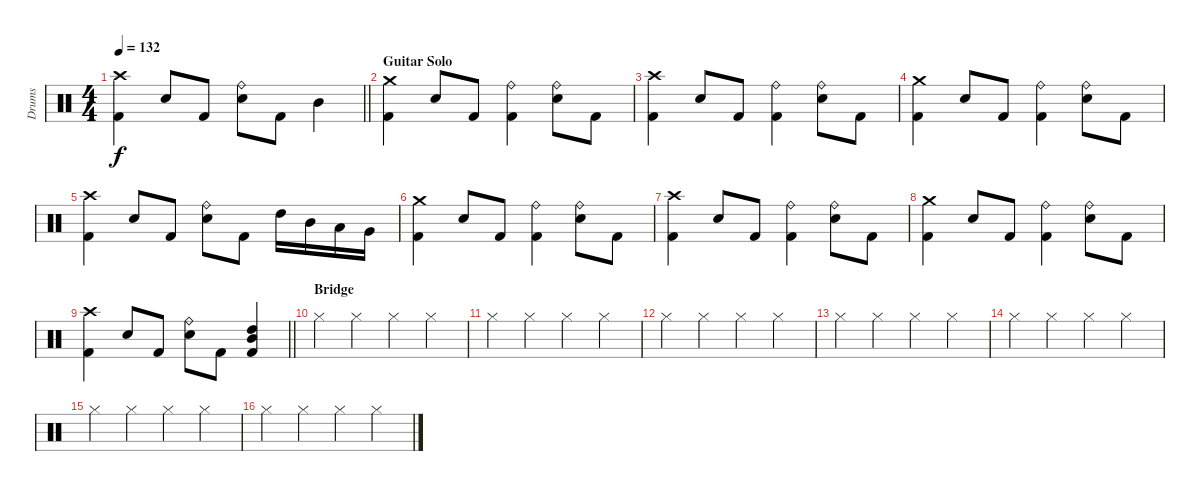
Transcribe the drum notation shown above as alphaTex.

\track ("Drums" "Drums") {instrument percussion}
\staff {score}
\articulation defaults
\ts (4 4)
\tempo 132
\clef neutral
\barLineRight lightlight
\ks c
("Kick (hit) 2" "Crash high (hit)").4{dy f} "Electric Snare (hit)".8 "Kick (hit) 2".8 ("Electric Snare (hit)" "Ride (bell)").8 "Kick (hit) 2".8 "Mid Tom (hit)".4 |
\section ("" "Guitar Solo")
("Kick (hit) 2" "Crash medium (hit)").4 "Electric Snare (hit)".8 "Kick (hit) 2".8 ("Kick (hit) 2" "Ride (bell)").4 ("Electric Snare (hit)" "Ride (bell)").8 "Kick (hit) 2".8 |
("Kick (hit) 2" "Crash high (hit)").4 "Electric Snare (hit)".8 "Kick (hit) 2".8 ("Kick (hit) 2" "Ride (bell)").4 ("Electric Snare (hit)" "Ride (bell)").8 "Kick (hit) 2".8 |
("Kick (hit) 2" "Crash medium (hit)").4 "Electric Snare (hit)".8 "Kick (hit) 2".8 ("Kick (hit) 2" "Ride (bell)").4 ("Electric Snare (hit)" "Ride (bell)").8 "Kick (hit) 2".8 |
("Kick (hit) 2" "Crash high (hit)").4 "Electric Snare (hit)".8 "Kick (hit) 2".8 ("Electric Snare (hit)" "Ride (bell)").8 "Kick (hit) 2".8 "High Tom (hit)".16 "Mid Tom (hit)".16 "Low Tom (hit)".16 "Very Low Tom (hit)".16 |
("Kick (hit) 2" "Crash medium (hit)").4 "Electric Snare (hit)".8 "Kick (hit) 2".8 ("Kick (hit) 2" "Ride (bell)").4 ("Electric Snare (hit)" "Ride (bell)").8 "Kick (hit) 2".8 |
("Kick (hit) 2" "Crash high (hit)").4 "Electric Snare (hit)".8 "Kick (hit) 2".8 ("Kick (hit) 2" "Ride (bell)").4 ("Electric Snare (hit)" "Ride (bell)").8 "Kick (hit) 2".8 |
("Kick (hit) 2" "Crash medium (hit)").4 "Electric Snare (hit)".8 "Kick (hit) 2".8 ("Kick (hit) 2" "Ride (bell)").4 ("Electric Snare (hit)" "Ride (bell)").8 "Kick (hit) 2".8 |
\barLineRight lightlight
("Kick (hit) 2" "Crash high (hit)").4 "Electric Snare (hit)".8 "Kick (hit) 2".8 ("Electric Snare (hit)" "Ride (bell)").8 "Kick (hit) 2".8 ("Kick (hit) 2" "Mid Tom (hit)" "High Tom (hit)").4 |
\section ("" "Bridge")
"Hi-Hat (closed)".4 "Hi-Hat (closed)".4 "Hi-Hat (closed)".4 "Hi-Hat (closed)".4 |
"Hi-Hat (closed)".4 "Hi-Hat (closed)".4 "Hi-Hat (closed)".4 "Hi-Hat (closed)".4 |
"Hi-Hat (closed)".4 "Hi-Hat (closed)".4 "Hi-Hat (closed)".4 "Hi-Hat (closed)".4 |
"Hi-Hat (closed)".4 "Hi-Hat (closed)".4 "Hi-Hat (closed)".4 "Hi-Hat (closed)".4 |
"Hi-Hat (closed)".4 "Hi-Hat (closed)".4 "Hi-Hat (closed)".4 "Hi-Hat (closed)".4 |
"Hi-Hat (closed)".4 "Hi-Hat (closed)".4 "Hi-Hat (closed)".4 "Hi-Hat (closed)".4 |
"Hi-Hat (closed)".4 "Hi-Hat (closed)".4 "Hi-Hat (closed)".4 "Hi-Hat (closed)".4
